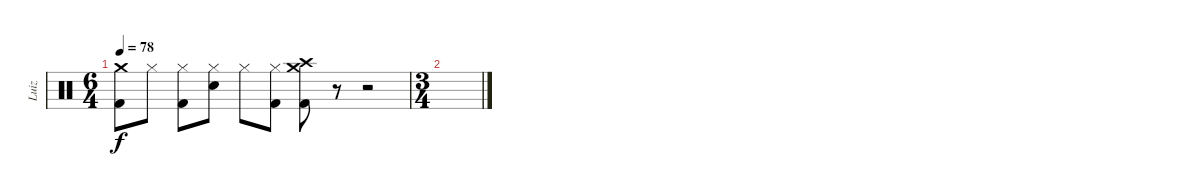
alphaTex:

\track ("Luiz" "Luiz") {instrument percussion}
\staff {score}
\articulation defaults
\ts (6 4)
\tempo 78
\clef neutral
\ks c
("Crash medium (hit)" "Kick (hit) 2").8{dy f} "Hi-Hat (closed)".8 ("Hi-Hat (closed)" "Kick (hit) 2").8 ("Hi-Hat (closed)" "Snare (hit) 2").8 "Hi-Hat (closed)".8 ("Hi-Hat (closed)" "Kick (hit) 2").8 ("Crash medium (hit)" "Crash high (hit)" "Kick (hit) 2").8 r.8 r.2 |
\ts (3 4)
